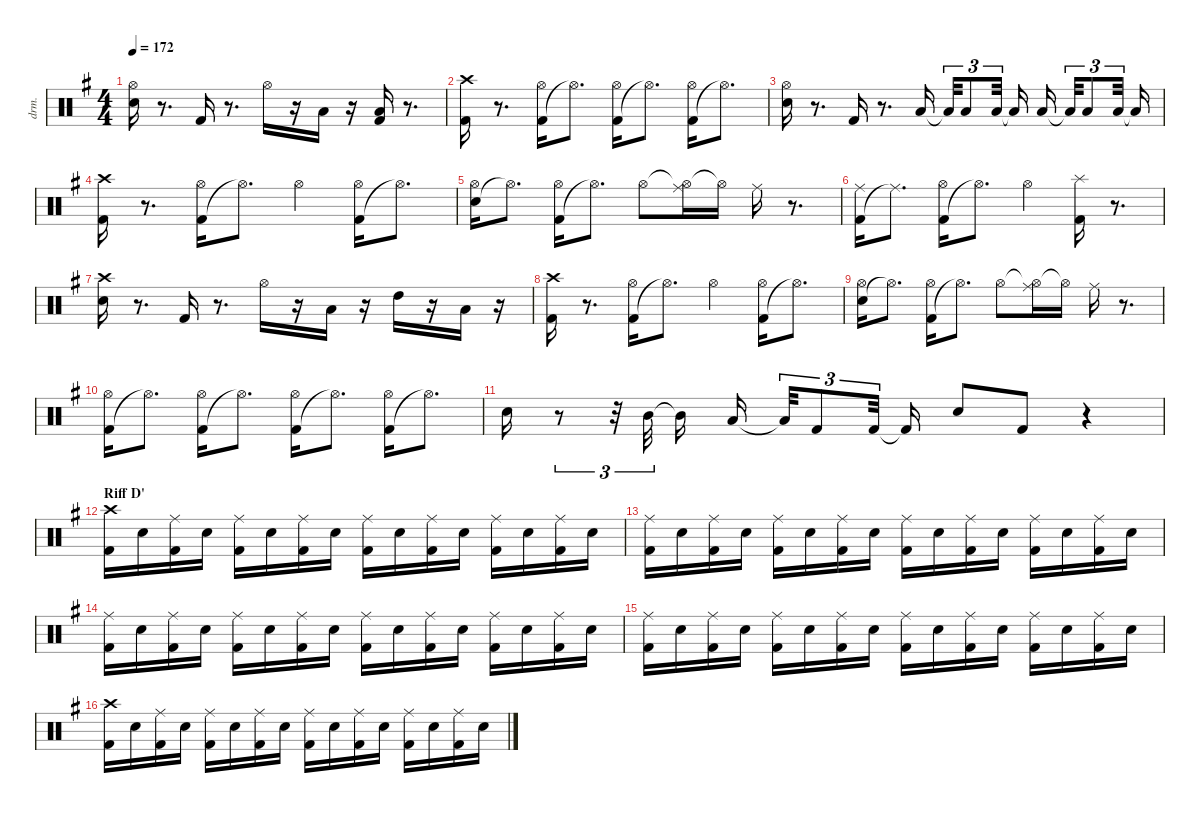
\defaultSystemsLayout 4
\hideDynamics
\bracketExtendMode nobrackets
\otherSystemsTrackNameOrientation horizontal
\track ("Shinya" "drm.") {instrument percussion}
\staff {score}
\articulation defaults
\ts (4 4)
\tempo 172
\clef neutral
\ks eminor
("Snare (hit) 2"{acc forcenatural} "Hi-Hat (open)"{acc #}).16{dy fff} r.8{d} "Kick (hit) 2"{acc forcenatural}.16 r.8{d} "Hi-Hat (open)"{acc #}.16 r.16 "Low Tom (hit)"{acc forcenatural}.16 r.16 ("Kick (hit) 2"{acc forcenatural} "Low Tom (hit)"{acc forcenatural}).16 r.8{d} |
("Kick (hit) 2"{acc forcenatural} "Crash high (hit)"{acc #}).16 r.8{d} ("Kick (hit) 2"{acc forcenatural} "Hi-Hat (open)"{acc #}).16 "Hi-Hat (open)"{t acc #}.8{d} ("Kick (hit) 2"{acc forcenatural} "Hi-Hat (open)"{acc #}).16 "Hi-Hat (open)"{t acc #}.8{d} ("Kick (hit) 2"{acc forcenatural} "Hi-Hat (open)"{acc #}).16 "Hi-Hat (open)"{t acc #}.8{d} |
("Snare (hit) 2"{acc forcenatural} "Hi-Hat (open)"{acc #}).16 r.8{d} "Kick (hit) 2"{acc forcenatural}.16 r.8{d} "Low Tom (hit)"{acc forcenatural}.16{dy mf} "Low Tom (hit)"{t acc forcenatural}.32{tu (3 2)} "Low Tom (hit)"{acc forcenatural}.8{tu (3 2) dy f} "Low Tom (hit)"{acc forcenatural}.32{tu (3 2) dy fff} "Low Tom (hit)"{t acc forcenatural}.16 "Low Tom (hit)"{acc forcenatural}.16 "Low Tom (hit)"{t acc forcenatural}.32{tu (3 2)} "Low Tom (hit)"{acc forcenatural}.8{tu (3 2)} "Low Tom (hit)"{acc forcenatural}.32{tu (3 2)} "Low Tom (hit)"{t acc forcenatural}.16 |
("Kick (hit) 2"{acc forcenatural} "Crash high (hit)"{acc #}).16 r.8{d} ("Kick (hit) 2"{acc forcenatural} "Hi-Hat (open)"{acc #}).16 "Hi-Hat (open)"{t acc #}.8{d} "Hi-Hat (open)"{acc #}.4 ("Kick (hit) 2"{acc forcenatural} "Hi-Hat (open)"{acc #}).16 "Hi-Hat (open)"{t acc #}.8{d} |
("Snare (hit) 2"{acc forcenatural} "Hi-Hat (open)"{acc #}).16 "Hi-Hat (open)"{t acc #}.8{d} ("Kick (hit) 2"{acc forcenatural} "Hi-Hat (open)"{acc #}).16 "Hi-Hat (open)"{t acc #}.8{d} "Hi-Hat (open)"{acc #}.8 ("Hi-Hat (open)"{t acc #} "Ride (middle)"{acc #}).16 "Hi-Hat (open)"{t acc #}.16 "Ride (middle)"{acc #}.16 r.8{d} |
("Kick (hit) 2"{acc forcenatural} "Ride (middle)"{acc #}).16 "Ride (middle)"{t acc #}.8{d} ("Kick (hit) 2"{acc forcenatural} "Hi-Hat (open)"{acc #}).16 "Hi-Hat (open)"{t acc #}.8{d} "Hi-Hat (open)"{acc #}.4 ("Kick (hit) 2"{acc forcenatural} "Splash (hit)"{acc forcenatural}).16 r.8{d} |
("Snare (hit) 2"{acc forcenatural} "Crash high (hit)"{acc #}).16 r.8{d} "Kick (hit) 2"{acc forcenatural}.16 r.8{d} "Hi-Hat (open)"{acc #}.16 r.16 "Low Tom (hit)"{acc forcenatural}.16 r.16 "High Tom (hit)"{acc forcenatural}.16 r.16 "Low Tom (hit)"{acc forcenatural}.16 r.16 |
("Kick (hit) 2"{acc forcenatural} "Crash high (hit)"{acc #}).16 r.8{d} ("Kick (hit) 2"{acc forcenatural} "Hi-Hat (open)"{acc #}).16 "Hi-Hat (open)"{t acc #}.8{d} "Hi-Hat (open)"{acc #}.4 ("Kick (hit) 2"{acc forcenatural} "Hi-Hat (open)"{acc #}).16 "Hi-Hat (open)"{t acc #}.8{d} |
("Snare (hit) 2"{acc forcenatural} "Hi-Hat (open)"{acc #}).16 "Hi-Hat (open)"{t acc #}.8{d} ("Kick (hit) 2"{acc forcenatural} "Hi-Hat (open)"{acc #}).16 "Hi-Hat (open)"{t acc #}.8{d dy ff} "Hi-Hat (open)"{acc #}.8{dy fff} ("Hi-Hat (open)"{t acc #} "Ride (middle)"{acc #}).16 "Hi-Hat (open)"{t acc #}.16 "Ride (middle)"{acc #}.16 r.8{d} |
("Kick (hit) 2"{acc forcenatural} "Hi-Hat (open)"{acc #}).16 "Hi-Hat (open)"{t acc #}.8{d dy ff} ("Kick (hit) 2"{acc forcenatural} "Hi-Hat (open)"{acc #}).16{dy fff} "Hi-Hat (open)"{t acc #}.8{d} ("Kick (hit) 2"{acc forcenatural} "Hi-Hat (open)"{acc #}).16 "Hi-Hat (open)"{t acc #}.8{d dy ff} ("Kick (hit) 2"{acc forcenatural} "Hi-Hat (open)"{acc #}).16{dy fff} "Hi-Hat (open)"{t acc #}.8{d} |
"Snare (hit) 2"{acc forcenatural}.16 r.8{tu (3 2)} r.32{tu (3 2)} "Mid Tom (hit)"{acc forcenatural}.32{tu (3 2)} "Mid Tom (hit)"{t acc forcenatural}.16 "Low Tom (hit)"{acc forcenatural}.16 "Low Tom (hit)"{t acc forcenatural}.32{tu (3 2)} "Kick (hit) 2"{acc forcenatural}.8{tu (3 2)} "Kick (hit) 2"{acc forcenatural}.32{tu (3 2)} "Kick (hit) 2"{t acc forcenatural}.16 "Snare (hit) 2"{acc forcenatural}.8 "Kick (hit) 2"{acc forcenatural}.8 r.4 |
\section ("" "Riff D'")
("Kick (hit) 2"{acc forcenatural} "Crash high (hit)"{acc #}).16 "Snare (hit) 2"{acc forcenatural}.16 ("Kick (hit) 2"{acc forcenatural} "Ride (middle)"{acc #}).16 "Snare (hit) 2"{acc forcenatural}.16 ("Kick (hit) 2"{acc forcenatural} "Ride (middle)"{acc #}).16 "Snare (hit) 2"{acc forcenatural}.16 ("Kick (hit) 2"{acc forcenatural} "Ride (middle)"{acc #}).16 "Snare (hit) 2"{acc forcenatural}.16 ("Kick (hit) 2"{acc forcenatural} "Ride (middle)"{acc #}).16 "Snare (hit) 2"{acc forcenatural}.16 ("Kick (hit) 2"{acc forcenatural} "Ride (middle)"{acc #}).16 "Snare (hit) 2"{acc forcenatural}.16 ("Kick (hit) 2"{acc forcenatural} "Ride (middle)"{acc #}).16 "Snare (hit) 2"{acc forcenatural}.16 ("Kick (hit) 2"{acc forcenatural} "Ride (middle)"{acc #}).16 "Snare (hit) 2"{acc forcenatural}.16 |
("Kick (hit) 2"{acc forcenatural} "Ride (middle)"{acc #}).16 "Snare (hit) 2"{acc forcenatural}.16 ("Kick (hit) 2"{acc forcenatural} "Ride (middle)"{acc #}).16 "Snare (hit) 2"{acc forcenatural}.16 ("Kick (hit) 2"{acc forcenatural} "Ride (middle)"{acc #}).16 "Snare (hit) 2"{acc forcenatural}.16 ("Kick (hit) 2"{acc forcenatural} "Ride (middle)"{acc #}).16 "Snare (hit) 2"{acc forcenatural}.16 ("Kick (hit) 2"{acc forcenatural} "Ride (middle)"{acc #}).16 "Snare (hit) 2"{acc forcenatural}.16 ("Kick (hit) 2"{acc forcenatural} "Ride (middle)"{acc #}).16 "Snare (hit) 2"{acc forcenatural}.16 ("Kick (hit) 2"{acc forcenatural} "Ride (middle)"{acc #}).16 "Snare (hit) 2"{acc forcenatural}.16 ("Kick (hit) 2"{acc forcenatural} "Ride (middle)"{acc #}).16 "Snare (hit) 2"{acc forcenatural}.16 |
("Kick (hit) 2"{acc forcenatural} "Ride (middle)"{acc #}).16 "Snare (hit) 2"{acc forcenatural}.16 ("Kick (hit) 2"{acc forcenatural} "Ride (middle)"{acc #}).16 "Snare (hit) 2"{acc forcenatural}.16 ("Kick (hit) 2"{acc forcenatural} "Ride (middle)"{acc #}).16 "Snare (hit) 2"{acc forcenatural}.16 ("Kick (hit) 2"{acc forcenatural} "Ride (middle)"{acc #}).16 "Snare (hit) 2"{acc forcenatural}.16 ("Kick (hit) 2"{acc forcenatural} "Ride (middle)"{acc #}).16 "Snare (hit) 2"{acc forcenatural}.16 ("Kick (hit) 2"{acc forcenatural} "Ride (middle)"{acc #}).16 "Snare (hit) 2"{acc forcenatural}.16 ("Kick (hit) 2"{acc forcenatural} "Ride (middle)"{acc #}).16 "Snare (hit) 2"{acc forcenatural}.16 ("Kick (hit) 2"{acc forcenatural} "Ride (middle)"{acc #}).16 "Snare (hit) 2"{acc forcenatural}.16 |
("Kick (hit) 2"{acc forcenatural} "Ride (middle)"{acc #}).16 "Snare (hit) 2"{acc forcenatural}.16 ("Kick (hit) 2"{acc forcenatural} "Ride (middle)"{acc #}).16 "Snare (hit) 2"{acc forcenatural}.16 ("Kick (hit) 2"{acc forcenatural} "Ride (middle)"{acc #}).16 "Snare (hit) 2"{acc forcenatural}.16 ("Kick (hit) 2"{acc forcenatural} "Ride (middle)"{acc #}).16 "Snare (hit) 2"{acc forcenatural}.16 ("Kick (hit) 2"{acc forcenatural} "Ride (middle)"{acc #}).16 "Snare (hit) 2"{acc forcenatural}.16 ("Kick (hit) 2"{acc forcenatural} "Ride (middle)"{acc #}).16 "Snare (hit) 2"{acc forcenatural}.16 ("Kick (hit) 2"{acc forcenatural} "Ride (middle)"{acc #}).16 "Snare (hit) 2"{acc forcenatural}.16 ("Kick (hit) 2"{acc forcenatural} "Ride (middle)"{acc #}).16 "Snare (hit) 2"{acc forcenatural}.16 |
("Kick (hit) 2"{acc forcenatural} "Crash high (hit)"{acc #}).16 "Snare (hit) 2"{acc forcenatural}.16 ("Kick (hit) 2"{acc forcenatural} "Ride (middle)"{acc #}).16 "Snare (hit) 2"{acc forcenatural}.16 ("Kick (hit) 2"{acc forcenatural} "Ride (middle)"{acc #}).16 "Snare (hit) 2"{acc forcenatural}.16 ("Kick (hit) 2"{acc forcenatural} "Ride (middle)"{acc #}).16 "Snare (hit) 2"{acc forcenatural}.16 ("Kick (hit) 2"{acc forcenatural} "Ride (middle)"{acc #}).16 "Snare (hit) 2"{acc forcenatural}.16 ("Kick (hit) 2"{acc forcenatural} "Ride (middle)"{acc #}).16 "Snare (hit) 2"{acc forcenatural}.16 ("Kick (hit) 2"{acc forcenatural} "Ride (middle)"{acc #}).16 "Snare (hit) 2"{acc forcenatural}.16 ("Kick (hit) 2"{acc forcenatural} "Ride (middle)"{acc #}).16 "Snare (hit) 2"{acc forcenatural}.16
